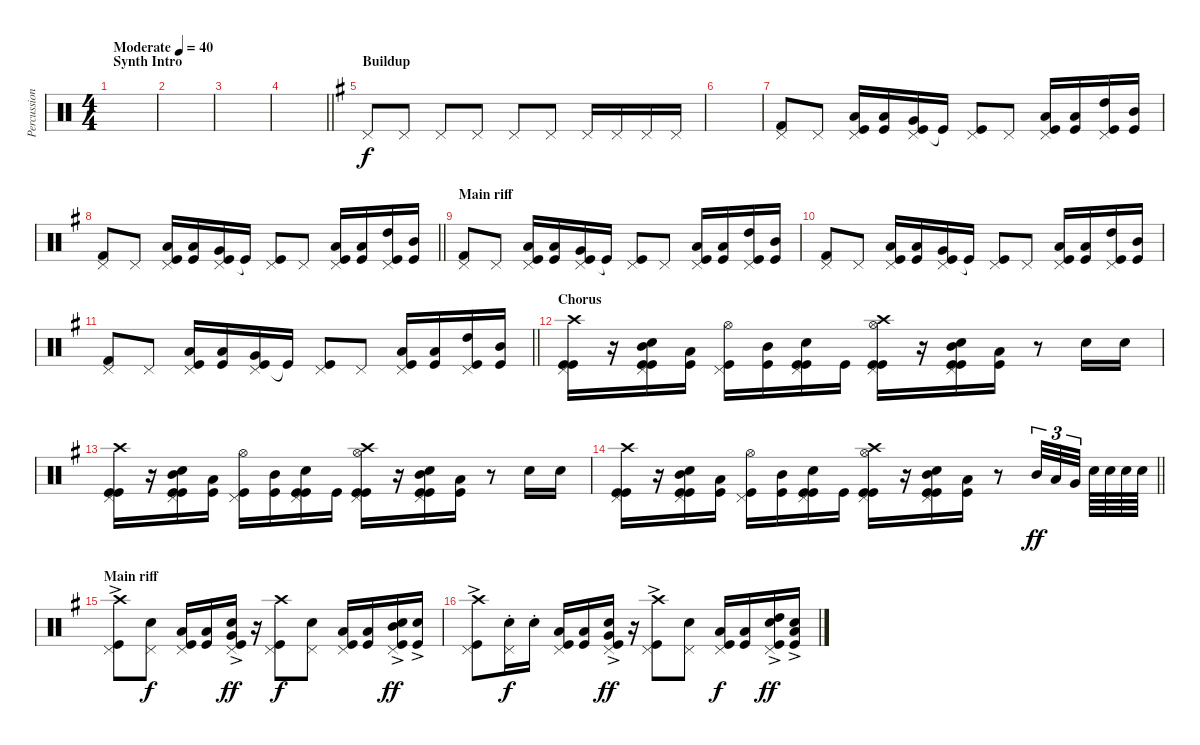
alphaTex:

\track ("Percussion" "Percussion") {instrument percussion}
\staff {score}
\articulation defaults
\ts (4 4)
\section ("" "Synth Intro")
\tempo (40 "Moderate")
\clef neutral
\ks c
|
|
|
\barLineRight lightlight
|
\section ("" "Buildup")
\ks eminor "Pedal Hi-Hat (hit)".8 "Pedal Hi-Hat (hit)".8 "Pedal Hi-Hat (hit)".8 "Pedal Hi-Hat (hit)".8 "Pedal Hi-Hat (hit)".8 "Pedal Hi-Hat (hit)".8 "Pedal Hi-Hat (hit)".16 "Pedal Hi-Hat (hit)".16 "Pedal Hi-Hat (hit)".16 "Pedal Hi-Hat (hit)".16
|
|
("Pedal Hi-Hat (hit)" "Kick (hit) 2").8 "Pedal Hi-Hat (hit)".8 ("Pedal Hi-Hat (hit)" "Low Floor Tom (hit)" "Kick (hit)").16 ("Low Floor Tom (hit)" "Kick (hit)").16 ("Pedal Hi-Hat (hit)" "Very Low Tom (hit)" "Kick (hit)").16 "Kick (hit)"{t}.16 ("Pedal Hi-Hat (hit)" "Kick (hit)").8 "Pedal Hi-Hat (hit)".8 ("Pedal Hi-Hat (hit)" "Low Floor Tom (hit)" "Kick (hit)").16 ("Low Tom (hit)" "Kick (hit)").16 ("Pedal Hi-Hat (hit)" "High Tom (hit)" "Kick (hit)").16 ("Mid Tom (hit)" "Kick (hit)").16 |
\barLineRight lightlight
("Pedal Hi-Hat (hit)" "Kick (hit) 2").8 "Pedal Hi-Hat (hit)".8 ("Pedal Hi-Hat (hit)" "Low Floor Tom (hit)" "Kick (hit)").16 ("Low Floor Tom (hit)" "Kick (hit)").16 ("Pedal Hi-Hat (hit)" "Very Low Tom (hit)" "Kick (hit)").16 "Kick (hit)"{t}.16 ("Pedal Hi-Hat (hit)" "Kick (hit)").8 "Pedal Hi-Hat (hit)".8 ("Pedal Hi-Hat (hit)" "Low Floor Tom (hit)" "Kick (hit)").16 ("Low Tom (hit)" "Kick (hit)").16 ("Pedal Hi-Hat (hit)" "High Tom (hit)" "Kick (hit)").16 ("Mid Tom (hit)" "Kick (hit)").16 |
\section ("" "Main riff")
("Pedal Hi-Hat (hit)" "Kick (hit) 2").8 "Pedal Hi-Hat (hit)".8 ("Pedal Hi-Hat (hit)" "Low Floor Tom (hit)" "Kick (hit)").16 ("Low Floor Tom (hit)" "Kick (hit)").16 ("Pedal Hi-Hat (hit)" "Very Low Tom (hit)" "Kick (hit)").16 "Kick (hit)"{t}.16 ("Pedal Hi-Hat (hit)" "Kick (hit)").8 "Pedal Hi-Hat (hit)".8 ("Pedal Hi-Hat (hit)" "Low Floor Tom (hit)" "Kick (hit)").16 ("Low Tom (hit)" "Kick (hit)").16 ("Pedal Hi-Hat (hit)" "High Tom (hit)" "Kick (hit)").16 ("Mid Tom (hit)" "Kick (hit)").16 |
("Pedal Hi-Hat (hit)" "Kick (hit) 2").8 "Pedal Hi-Hat (hit)".8 ("Pedal Hi-Hat (hit)" "Low Floor Tom (hit)" "Kick (hit)").16 ("Low Floor Tom (hit)" "Kick (hit)").16 ("Pedal Hi-Hat (hit)" "Very Low Tom (hit)" "Kick (hit)").16 "Kick (hit)"{t}.16 ("Pedal Hi-Hat (hit)" "Kick (hit)").8 "Pedal Hi-Hat (hit)".8 ("Pedal Hi-Hat (hit)" "Low Floor Tom (hit)" "Kick (hit)").16 ("Low Tom (hit)" "Kick (hit)").16 ("Pedal Hi-Hat (hit)" "High Tom (hit)" "Kick (hit)").16 ("Mid Tom (hit)" "Kick (hit)").16 |
\barLineRight lightlight
("Pedal Hi-Hat (hit)" "Kick (hit) 2").8 "Pedal Hi-Hat (hit)".8 ("Pedal Hi-Hat (hit)" "Low Floor Tom (hit)" "Kick (hit)").16 ("Low Floor Tom (hit)" "Kick (hit)").16 ("Pedal Hi-Hat (hit)" "Very Low Tom (hit)" "Kick (hit)").16 "Kick (hit)"{t}.16 ("Pedal Hi-Hat (hit)" "Kick (hit)").8 "Pedal Hi-Hat (hit)".8 ("Pedal Hi-Hat (hit)" "Low Floor Tom (hit)" "Kick (hit)").16 ("Low Tom (hit)" "Kick (hit)").16 ("Pedal Hi-Hat (hit)" "High Tom (hit)" "Kick (hit)").16 ("Mid Tom (hit)" "Kick (hit)").16 |
\section ("" "Chorus")
("Pedal Hi-Hat (hit)" "Crash high (hit)" "Kick (hit)" "Kick (hit)").16 r.16 ("Pedal Hi-Hat (hit)" "Snare (hit) 2" "Mid Tom (hit)" "Kick (hit)" "Kick (hit)").16 ("Low Tom (hit)" "Kick (hit)").16 ("Pedal Hi-Hat (hit)" "Hi-Hat (open)" "Kick (hit)").16 ("Mid Tom (hit)" "Kick (hit)").16 ("Pedal Hi-Hat (hit)" "Snare (hit) 2" "Kick (hit)" "Kick (hit)").16 "Kick (hit)".16 ("Pedal Hi-Hat (hit)" "Crash high (hit)" "Hi-Hat (open)" "Kick (hit)" "Kick (hit)").16 r.16 ("Pedal Hi-Hat (hit)" "Snare (hit) 2" "Mid Tom (hit)" "Kick (hit)" "Kick (hit)").16 ("Low Tom (hit)" "Kick (hit)").16 r.8 "Snare (hit) 2".16 "Snare (hit) 2".16 |
("Pedal Hi-Hat (hit)" "Crash high (hit)" "Kick (hit)" "Kick (hit)").16 r.16 ("Pedal Hi-Hat (hit)" "Snare (hit) 2" "Mid Tom (hit)" "Kick (hit)" "Kick (hit)").16 ("Low Tom (hit)" "Kick (hit)").16 ("Pedal Hi-Hat (hit)" "Hi-Hat (open)" "Kick (hit)").16 ("Mid Tom (hit)" "Kick (hit)").16 ("Pedal Hi-Hat (hit)" "Snare (hit) 2" "Kick (hit)" "Kick (hit)").16 "Kick (hit)".16 ("Pedal Hi-Hat (hit)" "Crash high (hit)" "Hi-Hat (open)" "Kick (hit)" "Kick (hit)").16 r.16 ("Pedal Hi-Hat (hit)" "Snare (hit) 2" "Mid Tom (hit)" "Kick (hit)" "Kick (hit)").16 ("Low Tom (hit)" "Kick (hit)").16 r.8 "Snare (hit) 2".16 "Snare (hit) 2".16 |
\barLineRight lightlight
("Pedal Hi-Hat (hit)" "Crash high (hit)" "Kick (hit)" "Kick (hit)").16 r.16 ("Pedal Hi-Hat (hit)" "Snare (hit) 2" "Mid Tom (hit)" "Kick (hit)" "Kick (hit)").16 ("Low Tom (hit)" "Kick (hit)").16 ("Pedal Hi-Hat (hit)" "Hi-Hat (open)" "Kick (hit)").16 ("Mid Tom (hit)" "Kick (hit)").16 ("Pedal Hi-Hat (hit)" "Snare (hit) 2" "Kick (hit)" "Kick (hit)").16 "Kick (hit)".16 ("Pedal Hi-Hat (hit)" "Crash high (hit)" "Hi-Hat (open)" "Kick (hit)" "Kick (hit)").16 r.16 ("Pedal Hi-Hat (hit)" "Snare (hit) 2" "Mid Tom (hit)" "Kick (hit)" "Kick (hit)").16 ("Low Tom (hit)" "Kick (hit)").16 r.8 "Mid Tom (hit)".32{tu (3 2) dy ff} "Low Tom (hit)".32{tu (3 2)} "Very Low Tom (hit)".32{tu (3 2) beam splitsecondary} "Snare (hit) 2".64 "Snare (hit) 2".64 "Snare (hit) 2".64 "Snare (hit) 2".64 |
\section ("" "Main riff")
("Pedal Hi-Hat (hit)"{ac} "Crash high (hit)"{ac} "Kick (hit)"{ac}).8 ("Pedal Hi-Hat (hit)" "Snare (hit) 2").8{dy f} ("Pedal Hi-Hat (hit)" "Low Floor Tom (hit)" "Kick (hit)").16 ("Low Floor Tom (hit)" "Kick (hit)").16 ("Pedal Hi-Hat (hit)"{ac} "Snare (hit) 2"{ac} "Very Low Tom (hit)"{ac} "Kick (hit)"{ac}).16{dy ff} r.16 ("Pedal Hi-Hat (hit)" "Crash high (hit)" "Kick (hit)").8{dy f} ("Pedal Hi-Hat (hit)" "Snare (hit) 2").8 ("Pedal Hi-Hat (hit)" "Low Floor Tom (hit)" "Kick (hit)").16 ("Low Tom (hit)" "Kick (hit)").16 ("Pedal Hi-Hat (hit)"{ac} "Snare (hit) 2"{ac} "Mid Tom (hit)"{ac} "Kick (hit)"{ac}).16{dy ff} ("Snare (hit) 2"{ac} "Kick (hit)"{ac}).16 |
("Pedal Hi-Hat (hit)"{ac} "Crash high (hit)" "Kick (hit)"{ac}).8 ("Pedal Hi-Hat (hit)"{st} "Snare (hit) 2"{st}).16{dy f} "Snare (hit) 2"{st}.16 ("Pedal Hi-Hat (hit)" "Low Tom (hit)" "Kick (hit)").16 ("Low Floor Tom (hit)" "Kick (hit)").16 ("Pedal Hi-Hat (hit)"{ac} "Snare (hit) 2"{ac} "Very Low Tom (hit)"{ac} "Kick (hit)"{ac}).16{dy ff} r.16 ("Pedal Hi-Hat (hit)"{ac} "Crash high (hit)"{ac} "Kick (hit)"{ac}).8 ("Pedal Hi-Hat (hit)" "Snare (hit) 2").8 ("Pedal Hi-Hat (hit)" "Low Floor Tom (hit)" "Kick (hit)").16{dy f} ("Low Tom (hit)" "Kick (hit)").16 ("Pedal Hi-Hat (hit)"{ac} "Snare (hit) 2"{ac} "High Tom (hit)"{ac} "Kick (hit)"{ac}).16{dy ff} ("Snare (hit) 2"{ac} "Low Tom (hit)"{ac} "Kick (hit)"{ac}).16
